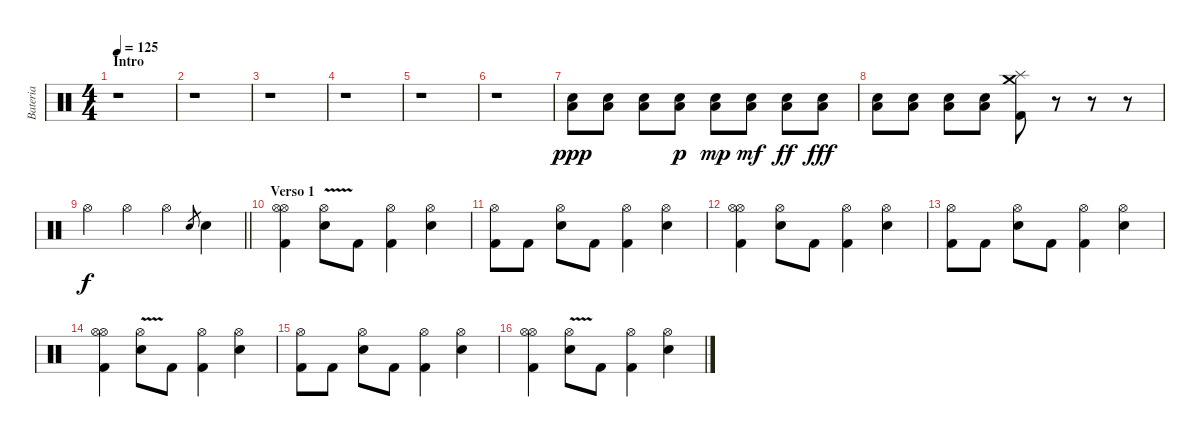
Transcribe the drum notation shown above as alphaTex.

\track ("Bateria" "Bateria") {instrument percussion}
\staff {score}
\articulation defaults
\ts (4 4)
\section ("" "Intro")
\tempo 125
\clef neutral
\ks c
r.1{dy ppp} |
r.1 |
r.1 |
r.1 |
r.1 |
r.1 |
("Electric Snare (hit)" "Low Floor Tom (hit)").8 ("Electric Snare (hit)" "Low Floor Tom (hit)").8 ("Electric Snare (hit)" "Low Floor Tom (hit)").8 ("Electric Snare (hit)" "Low Floor Tom (hit)").8{dy p} ("Electric Snare (hit)" "Low Floor Tom (hit)").8{dy mp} ("Electric Snare (hit)" "Low Floor Tom (hit)").8{dy mf} ("Electric Snare (hit)" "Low Floor Tom (hit)").8{dy ff} ("Electric Snare (hit)" "Low Floor Tom (hit)").8{dy fff} |
("Electric Snare (hit)" "Low Floor Tom (hit)").8 ("Electric Snare (hit)" "Low Floor Tom (hit)").8 ("Electric Snare (hit)" "Low Floor Tom (hit)").8 ("Electric Snare (hit)" "Low Floor Tom (hit)").8 ("Splash (hit)" "Crash medium (hit)" "Kick (hit) 2").8 r.8 r.8 r.8 |
\barLineRight lightlight "Hi-Hat (open)".4{dy f} "Hi-Hat (open)".4 "Hi-Hat (open)".4 "Electric Snare (hit)".8{gr} "Electric Snare (hit)".4
|
\section ("" "Verso 1")
("Hi-Hat (open)" "Hi-Hat (open)" "Kick (hit) 2").4 ("Hi-Hat (open)"{v} "Electric Snare (hit)").8 "Kick (hit) 2".8 ("Hi-Hat (open)" "Kick (hit) 2").4 ("Electric Snare (hit)" "Hi-Hat (open)").4 |
("Hi-Hat (open)" "Kick (hit) 2").8 "Kick (hit) 2".8 ("Hi-Hat (open)" "Electric Snare (hit)").8 "Kick (hit) 2".8 ("Hi-Hat (open)" "Kick (hit) 2").4 ("Electric Snare (hit)" "Hi-Hat (open)").4 |
("Hi-Hat (open)" "Hi-Hat (open)" "Kick (hit) 2").4 ("Hi-Hat (open)" "Electric Snare (hit)").8 "Kick (hit) 2".8 ("Hi-Hat (open)" "Kick (hit) 2").4 ("Electric Snare (hit)" "Hi-Hat (open)").4 |
("Hi-Hat (open)" "Kick (hit) 2").8 "Kick (hit) 2".8 ("Hi-Hat (open)" "Electric Snare (hit)").8 "Kick (hit) 2".8 ("Hi-Hat (open)" "Kick (hit) 2").4 ("Electric Snare (hit)" "Hi-Hat (open)").4 |
("Hi-Hat (open)" "Hi-Hat (open)" "Kick (hit) 2").4 ("Hi-Hat (open)"{v} "Electric Snare (hit)").8 "Kick (hit) 2".8 ("Hi-Hat (open)" "Kick (hit) 2").4 ("Electric Snare (hit)" "Hi-Hat (open)").4 |
("Hi-Hat (open)" "Kick (hit) 2").8 "Kick (hit) 2".8 ("Hi-Hat (open)" "Electric Snare (hit)").8 "Kick (hit) 2".8 ("Hi-Hat (open)" "Kick (hit) 2").4 ("Electric Snare (hit)" "Hi-Hat (open)").4 |
("Hi-Hat (open)" "Hi-Hat (open)" "Kick (hit) 2").4 ("Hi-Hat (open)"{v} "Electric Snare (hit)").8 "Kick (hit) 2".8 ("Hi-Hat (open)" "Kick (hit) 2").4 ("Electric Snare (hit)" "Hi-Hat (open)").4
